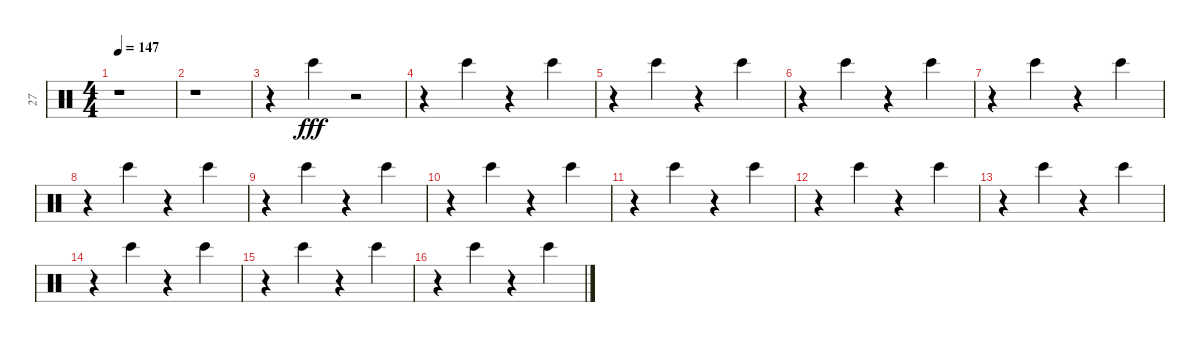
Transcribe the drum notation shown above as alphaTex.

\track ("27" "27") {instrument percussion}
\staff {score}
\articulation defaults
\ts (4 4)
\tempo 147
\clef neutral
\ks c
r.1{dy fff} |
r.1 |
r.4 "Bongo High (hit)".4 r.2 |
r.4 "Bongo High (hit)".4 r.4 "Bongo High (hit)".4 |
r.4 "Bongo High (hit)".4 r.4 "Bongo High (hit)".4 |
r.4 "Bongo High (hit)".4 r.4 "Bongo High (hit)".4 |
r.4 "Bongo High (hit)".4 r.4 "Bongo High (hit)".4 |
r.4 "Bongo High (hit)".4 r.4 "Bongo High (hit)".4 |
r.4 "Bongo High (hit)".4 r.4 "Bongo High (hit)".4 |
r.4 "Bongo High (hit)".4 r.4 "Bongo High (hit)".4 |
r.4 "Bongo High (hit)".4 r.4 "Bongo High (hit)".4 |
r.4 "Bongo High (hit)".4 r.4 "Bongo High (hit)".4 |
r.4 "Bongo High (hit)".4 r.4 "Bongo High (hit)".4 |
r.4 "Bongo High (hit)".4 r.4 "Bongo High (hit)".4 |
r.4 "Bongo High (hit)".4 r.4 "Bongo High (hit)".4 |
r.4 "Bongo High (hit)".4 r.4 "Bongo High (hit)".4
